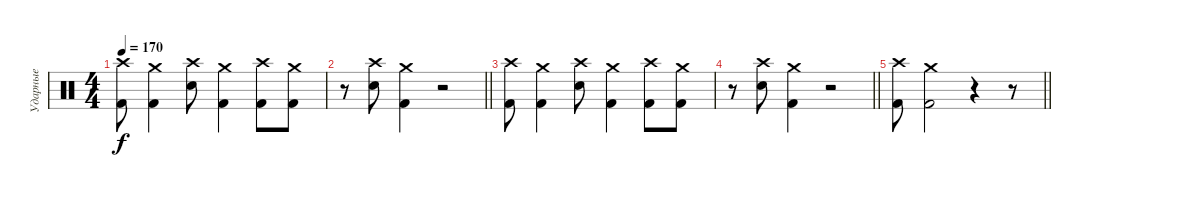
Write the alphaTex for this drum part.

\track ("Ударные" "Ударные") {instrument percussion}
\staff {score}
\articulation defaults
\ts (4 4)
\tempo 170
\clef neutral
\ks c
("Crash high (hit)" "Kick (hit) 2").8{dy f} ("Crash medium (hit)" "Kick (hit) 2").4 ("Crash high (hit)" "Snare (hit) 2").8 ("Crash medium (hit)" "Kick (hit) 2").4 ("Crash high (hit)" "Kick (hit) 2").8 ("Crash medium (hit)" "Kick (hit) 2").8 |
\barLineRight lightlight
r.8 ("Crash high (hit)" "Snare (hit) 2").8 ("Crash medium (hit)" "Kick (hit) 2").4 r.2 |
("Crash high (hit)" "Kick (hit) 2").8 ("Crash medium (hit)" "Kick (hit) 2").4 ("Crash high (hit)" "Snare (hit) 2").8 ("Crash medium (hit)" "Kick (hit) 2").4 ("Crash high (hit)" "Kick (hit) 2").8 ("Crash medium (hit)" "Kick (hit) 2").8 |
\barLineRight lightlight
r.8 ("Crash high (hit)" "Snare (hit) 2").8 ("Crash medium (hit)" "Kick (hit) 2").4 r.2 |
\barLineRight lightlight
("Crash high (hit)" "Kick (hit) 2").8 ("Crash medium (hit)" "Kick (hit) 2").2 r.4 r.8
